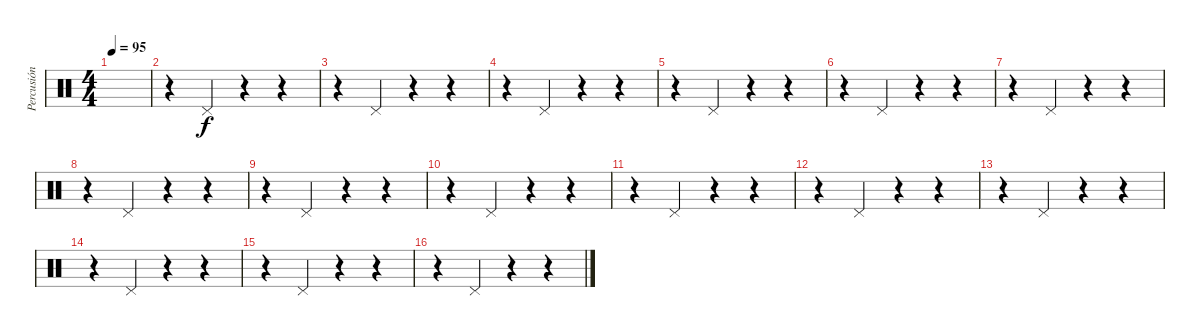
\track ("Percusión" "Percusión") {instrument percussion}
\staff {score}
\articulation defaults
\ts (4 4)
\tempo 95
\clef neutral
\ks c
|
r.4 "Pedal Hi-Hat (hit)".4 r.4 r.4 |
r.4 "Pedal Hi-Hat (hit)".4 r.4 r.4 |
r.4 "Pedal Hi-Hat (hit)".4 r.4 r.4 |
r.4 "Pedal Hi-Hat (hit)".4 r.4 r.4 |
r.4 "Pedal Hi-Hat (hit)".4 r.4 r.4 |
r.4 "Pedal Hi-Hat (hit)".4 r.4 r.4 |
r.4 "Pedal Hi-Hat (hit)".4 r.4 r.4 |
r.4 "Pedal Hi-Hat (hit)".4 r.4 r.4 |
r.4 "Pedal Hi-Hat (hit)".4 r.4 r.4 |
r.4 "Pedal Hi-Hat (hit)".4 r.4 r.4 |
r.4 "Pedal Hi-Hat (hit)".4 r.4 r.4 |
r.4 "Pedal Hi-Hat (hit)".4 r.4 r.4 |
r.4 "Pedal Hi-Hat (hit)".4 r.4 r.4 |
r.4 "Pedal Hi-Hat (hit)".4 r.4 r.4 |
r.4 "Pedal Hi-Hat (hit)".4 r.4 r.4
